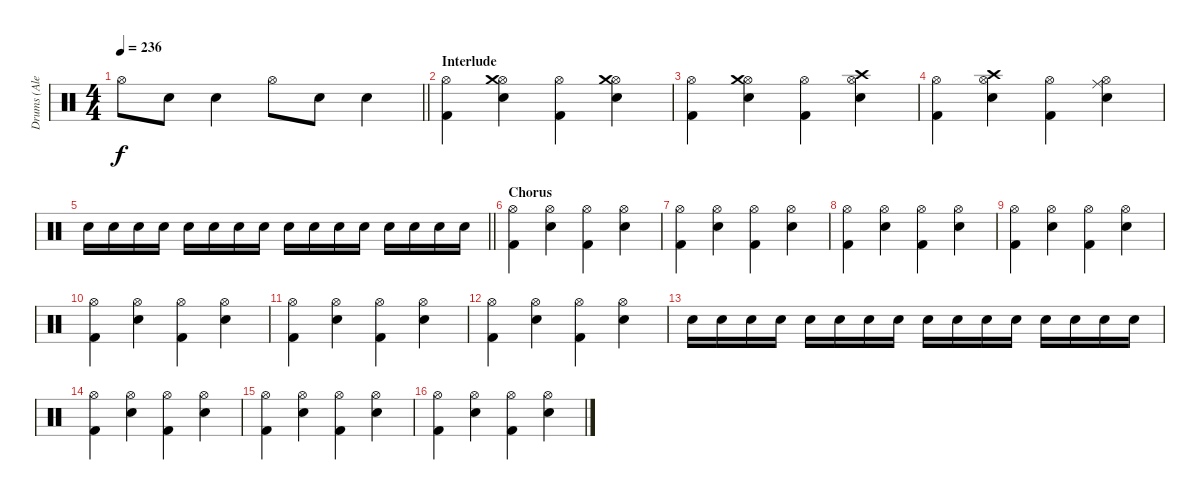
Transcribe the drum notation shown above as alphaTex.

\track ("Drums (Alex Van Halen)" "Drums (Ale") {instrument percussion}
\staff {score}
\articulation defaults
\ts (4 4)
\tempo 236
\clef neutral
\barLineRight lightlight
\ks c "Hi-Hat (open)".8{dy f} "Snare (hit) 2".8 "Snare (hit) 2".4 "Hi-Hat (open)".8 "Snare (hit) 2".8 "Snare (hit) 2".4
|
\section ("" "Interlude")
("Hi-Hat (open)" "Kick (hit) 2").4 ("Hi-Hat (open)" "Crash medium (hit)" "Snare (hit) 2").4 ("Hi-Hat (open)" "Kick (hit) 2").4 ("Hi-Hat (open)" "Crash medium (hit)" "Snare (hit) 2").4 |
("Hi-Hat (open)" "Kick (hit) 2").4 ("Hi-Hat (open)" "Crash medium (hit)" "Snare (hit) 2").4 ("Hi-Hat (open)" "Kick (hit) 2").4 ("Hi-Hat (open)" "Crash high (hit)" "Snare (hit) 2").4 |
("Hi-Hat (open)" "Kick (hit) 2").4 ("Hi-Hat (open)" "Crash high (hit)" "Snare (hit) 2").4 ("Hi-Hat (open)" "Kick (hit) 2").4 ("Hi-Hat (open)" "Ride (middle)" "Snare (hit) 2").4 |
\barLineRight lightlight "Snare (hit) 2".16 "Snare (hit) 2".16 "Snare (hit) 2".16 "Snare (hit) 2".16 "Snare (hit) 2".16 "Snare (hit) 2".16 "Snare (hit) 2".16 "Snare (hit) 2".16 "Snare (hit) 2".16 "Snare (hit) 2".16 "Snare (hit) 2".16 "Snare (hit) 2".16 "Snare (hit) 2".16 "Snare (hit) 2".16 "Snare (hit) 2".16 "Snare (hit) 2".16
|
\section ("" "Chorus")
("Hi-Hat (open)" "Kick (hit) 2").4 ("Hi-Hat (open)" "Snare (hit) 2").4 ("Hi-Hat (open)" "Kick (hit) 2").4 ("Hi-Hat (open)" "Snare (hit) 2").4 |
("Hi-Hat (open)" "Kick (hit) 2").4 ("Hi-Hat (open)" "Snare (hit) 2").4 ("Hi-Hat (open)" "Kick (hit) 2").4 ("Hi-Hat (open)" "Snare (hit) 2").4 |
("Hi-Hat (open)" "Kick (hit) 2").4 ("Hi-Hat (open)" "Snare (hit) 2").4 ("Hi-Hat (open)" "Kick (hit) 2").4 ("Hi-Hat (open)" "Snare (hit) 2").4 |
("Hi-Hat (open)" "Kick (hit) 2").4 ("Hi-Hat (open)" "Snare (hit) 2").4 ("Hi-Hat (open)" "Kick (hit) 2").4 ("Hi-Hat (open)" "Snare (hit) 2").4 |
("Hi-Hat (open)" "Kick (hit) 2").4 ("Hi-Hat (open)" "Snare (hit) 2").4 ("Hi-Hat (open)" "Kick (hit) 2").4 ("Hi-Hat (open)" "Snare (hit) 2").4 |
("Hi-Hat (open)" "Kick (hit) 2").4 ("Hi-Hat (open)" "Snare (hit) 2").4 ("Hi-Hat (open)" "Kick (hit) 2").4 ("Hi-Hat (open)" "Snare (hit) 2").4 |
("Hi-Hat (open)" "Kick (hit) 2").4 ("Hi-Hat (open)" "Snare (hit) 2").4 ("Hi-Hat (open)" "Kick (hit) 2").4 ("Hi-Hat (open)" "Snare (hit) 2").4 |
"Snare (hit) 2".16 "Snare (hit) 2".16 "Snare (hit) 2".16 "Snare (hit) 2".16 "Snare (hit) 2".16 "Snare (hit) 2".16 "Snare (hit) 2".16 "Snare (hit) 2".16 "Snare (hit) 2".16 "Snare (hit) 2".16 "Snare (hit) 2".16 "Snare (hit) 2".16 "Snare (hit) 2".16 "Snare (hit) 2".16 "Snare (hit) 2".16 "Snare (hit) 2".16 |
("Hi-Hat (open)" "Kick (hit) 2").4 ("Hi-Hat (open)" "Snare (hit) 2").4 ("Hi-Hat (open)" "Kick (hit) 2").4 ("Hi-Hat (open)" "Snare (hit) 2").4 |
("Hi-Hat (open)" "Kick (hit) 2").4 ("Hi-Hat (open)" "Snare (hit) 2").4 ("Hi-Hat (open)" "Kick (hit) 2").4 ("Hi-Hat (open)" "Snare (hit) 2").4 |
("Hi-Hat (open)" "Kick (hit) 2").4 ("Hi-Hat (open)" "Snare (hit) 2").4 ("Hi-Hat (open)" "Kick (hit) 2").4 ("Hi-Hat (open)" "Snare (hit) 2").4
